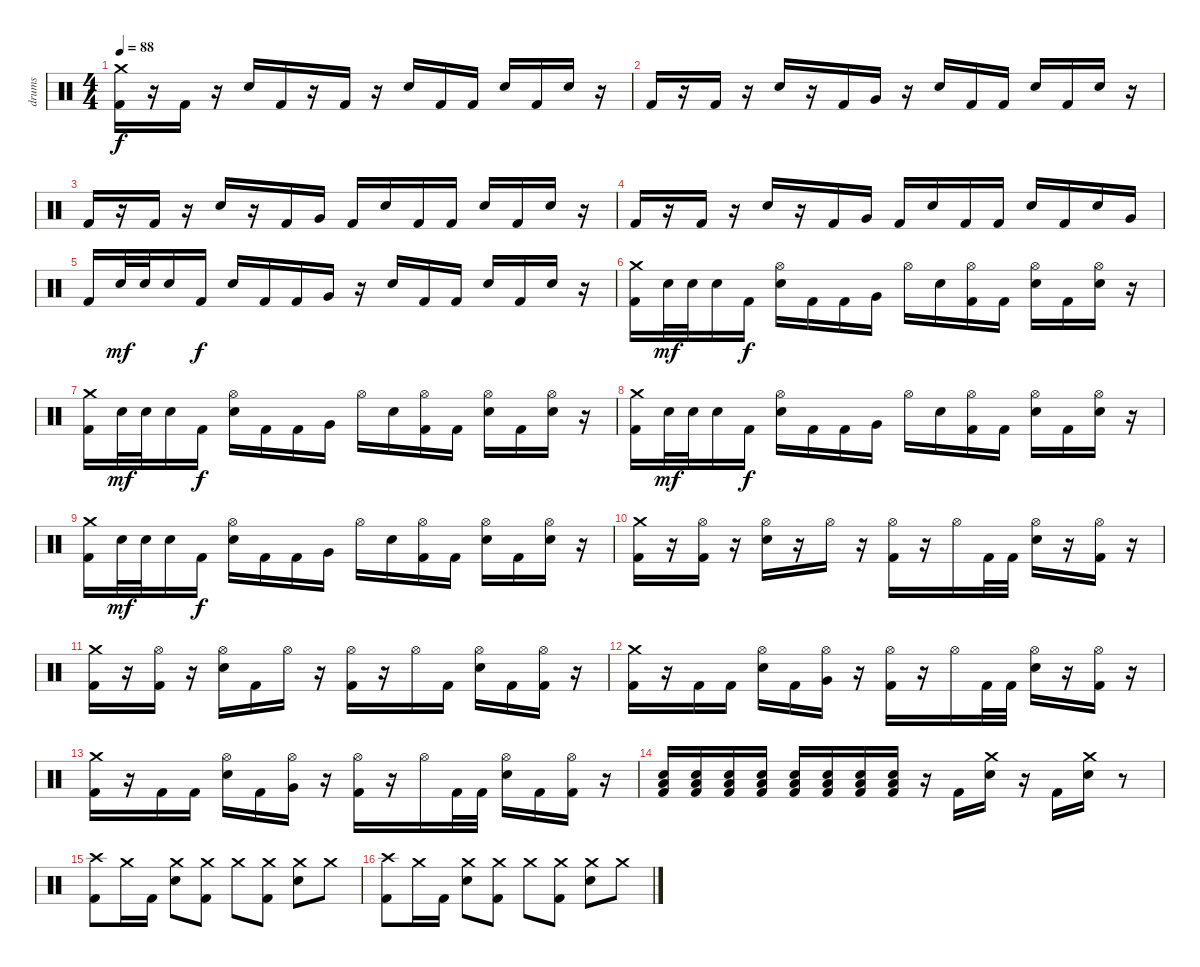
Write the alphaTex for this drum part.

\track ("drums" "drums") {instrument percussion}
\staff {score}
\articulation defaults
\ts (4 4)
\tempo 88
\clef neutral
\ks c
("Crash medium (hit)" "Kick (hit) 2").16{dy f} r.16 "Kick (hit) 2".16 r.16 "Electric Snare (hit)".16 "Kick (hit) 2".16 r.16 "Kick (hit) 2".16 r.16 "Electric Snare (hit)".16 "Kick (hit) 2".16 "Kick (hit) 2".16 "Electric Snare (hit)".16 "Kick (hit) 2".16 "Electric Snare (hit)".16 r.16 |
"Kick (hit) 2".16 r.16 "Kick (hit) 2".16 r.16 "Electric Snare (hit)".16 r.16 "Kick (hit) 2".16 "Very Low Tom (hit)".16 r.16 "Electric Snare (hit)".16 "Kick (hit) 2".16 "Kick (hit) 2".16 "Electric Snare (hit)".16 "Kick (hit) 2".16 "Electric Snare (hit)".16 r.16 |
"Kick (hit) 2".16 r.16 "Kick (hit) 2".16 r.16 "Electric Snare (hit)".16 r.16 "Kick (hit) 2".16 "Very Low Tom (hit)".16 "Kick (hit) 2".16 "Electric Snare (hit)".16 "Kick (hit) 2".16 "Kick (hit) 2".16 "Electric Snare (hit)".16 "Kick (hit) 2".16 "Electric Snare (hit)".16 r.16 |
"Kick (hit) 2".16 r.16 "Kick (hit) 2".16 r.16 "Electric Snare (hit)".16 r.16 "Kick (hit) 2".16 "Very Low Tom (hit)".16 "Kick (hit) 2".16 "Electric Snare (hit)".16 "Kick (hit) 2".16 "Kick (hit) 2".16 "Electric Snare (hit)".16 "Kick (hit) 2".16 "Electric Snare (hit)".16 "Very Low Tom (hit)".16 |
"Kick (hit) 2".16 "Electric Snare (hit)".32{dy mf} "Electric Snare (hit)".32 "Electric Snare (hit)".16 "Kick (hit) 2".16{dy f} "Electric Snare (hit)".16 "Kick (hit) 2".16 "Kick (hit) 2".16 "Very Low Tom (hit)".16 r.16 "Electric Snare (hit)".16 "Kick (hit) 2".16 "Kick (hit) 2".16 "Electric Snare (hit)".16 "Kick (hit) 2".16 "Electric Snare (hit)".16 r.16 |
("Crash medium (hit)" "Kick (hit) 2").16 "Electric Snare (hit)".32{dy mf} "Electric Snare (hit)".32 "Electric Snare (hit)".16 "Kick (hit) 2".16{dy f} ("Hi-Hat (open)" "Electric Snare (hit)").16 "Kick (hit) 2".16 "Kick (hit) 2".16 "Very Low Tom (hit)".16 "Hi-Hat (open)".16 "Electric Snare (hit)".16 ("Hi-Hat (open)" "Kick (hit) 2").16 "Kick (hit) 2".16 ("Hi-Hat (open)" "Electric Snare (hit)").16 "Kick (hit) 2".16 ("Hi-Hat (open)" "Electric Snare (hit)").16 r.16 |
("Crash medium (hit)" "Kick (hit) 2").16 "Electric Snare (hit)".32{dy mf} "Electric Snare (hit)".32 "Electric Snare (hit)".16 "Kick (hit) 2".16{dy f} ("Hi-Hat (open)" "Electric Snare (hit)").16 "Kick (hit) 2".16 "Kick (hit) 2".16 "Very Low Tom (hit)".16 "Hi-Hat (open)".16 "Electric Snare (hit)".16 ("Hi-Hat (open)" "Kick (hit) 2").16 "Kick (hit) 2".16 ("Hi-Hat (open)" "Electric Snare (hit)").16 "Kick (hit) 2".16 ("Hi-Hat (open)" "Electric Snare (hit)").16 r.16 |
("Crash medium (hit)" "Kick (hit) 2").16 "Electric Snare (hit)".32{dy mf} "Electric Snare (hit)".32 "Electric Snare (hit)".16 "Kick (hit) 2".16{dy f} ("Hi-Hat (open)" "Electric Snare (hit)").16 "Kick (hit) 2".16 "Kick (hit) 2".16 "Very Low Tom (hit)".16 "Hi-Hat (open)".16 "Electric Snare (hit)".16 ("Hi-Hat (open)" "Kick (hit) 2").16 "Kick (hit) 2".16 ("Hi-Hat (open)" "Electric Snare (hit)").16 "Kick (hit) 2".16 ("Hi-Hat (open)" "Electric Snare (hit)").16 r.16 |
("Crash medium (hit)" "Kick (hit) 2").16 "Electric Snare (hit)".32{dy mf} "Electric Snare (hit)".32 "Electric Snare (hit)".16 "Kick (hit) 2".16{dy f} ("Hi-Hat (open)" "Electric Snare (hit)").16 "Kick (hit) 2".16 "Kick (hit) 2".16 "Very Low Tom (hit)".16 "Hi-Hat (open)".16 "Electric Snare (hit)".16 ("Hi-Hat (open)" "Kick (hit) 2").16 "Kick (hit) 2".16 ("Hi-Hat (open)" "Electric Snare (hit)").16 "Kick (hit) 2".16 ("Hi-Hat (open)" "Electric Snare (hit)").16 r.16 |
("Crash medium (hit)" "Kick (hit) 2").16 r.16 ("Hi-Hat (open)" "Kick (hit) 2").16 r.16 ("Hi-Hat (open)" "Electric Snare (hit)").16 r.16 "Hi-Hat (open)".16 r.16 ("Hi-Hat (open)" "Kick (hit) 2").16 r.16 "Hi-Hat (open)".16 "Kick (hit) 2".32 "Kick (hit) 2".32 ("Hi-Hat (open)" "Electric Snare (hit)").16 r.16 ("Hi-Hat (open)" "Kick (hit) 2").16 r.16 |
("Crash medium (hit)" "Kick (hit) 2").16 r.16 ("Hi-Hat (open)" "Kick (hit) 2").16 r.16 ("Hi-Hat (open)" "Electric Snare (hit)").16 "Kick (hit) 2".16 "Hi-Hat (open)".16 r.16 ("Hi-Hat (open)" "Kick (hit) 2").16 r.16 "Hi-Hat (open)".16 "Kick (hit) 2".16 ("Hi-Hat (open)" "Electric Snare (hit)").16 "Kick (hit) 2".16 ("Hi-Hat (open)" "Kick (hit) 2").16 r.16 |
("Crash medium (hit)" "Kick (hit) 2").16 r.16 "Kick (hit) 2".16 "Kick (hit) 2".16 ("Hi-Hat (open)" "Electric Snare (hit)").16 "Kick (hit) 2".16 ("Hi-Hat (open)" "Very Low Tom (hit)").16 r.16 ("Hi-Hat (open)" "Kick (hit) 2").16 r.16 "Hi-Hat (open)".16 "Kick (hit) 2".32 "Kick (hit) 2".32 ("Hi-Hat (open)" "Electric Snare (hit)").16 r.16 ("Hi-Hat (open)" "Kick (hit) 2").16 r.16 |
("Crash medium (hit)" "Kick (hit) 2").16 r.16 "Kick (hit) 2".16 "Kick (hit) 2".16 ("Hi-Hat (open)" "Electric Snare (hit)").16 "Kick (hit) 2".16 ("Hi-Hat (open)" "Very Low Tom (hit)").16 r.16 ("Hi-Hat (open)" "Kick (hit) 2").16 r.16 "Hi-Hat (open)".16 "Kick (hit) 2".32 "Kick (hit) 2".32 ("Hi-Hat (open)" "Electric Snare (hit)").16 "Kick (hit) 2".16 ("Hi-Hat (open)" "Kick (hit) 2").16 r.16 |
("Electric Snare (hit)" "Low Tom (hit)" "Kick (hit) 2").16 ("Electric Snare (hit)" "Low Tom (hit)" "Kick (hit) 2").16 ("Electric Snare (hit)" "Low Tom (hit)" "Kick (hit) 2").16 ("Electric Snare (hit)" "Low Tom (hit)" "Kick (hit) 2").16 ("Electric Snare (hit)" "Low Tom (hit)" "Kick (hit) 2").16 ("Electric Snare (hit)" "Low Tom (hit)" "Kick (hit) 2").16 ("Electric Snare (hit)" "Low Tom (hit)" "Kick (hit) 2").16 ("Electric Snare (hit)" "Low Tom (hit)" "Kick (hit) 2").16 r.16 "Kick (hit) 2".16 ("Crash medium (hit)" "Electric Snare (hit)").16 r.16 "Kick (hit) 2".16 ("Crash medium (hit)" "Electric Snare (hit)").16 r.8 |
("Crash high (hit)" "Kick (hit) 2").8 "Crash medium (hit)".16 "Kick (hit) 2".16 ("Crash medium (hit)" "Electric Snare (hit)").8 ("Crash medium (hit)" "Kick (hit) 2").8 "Crash medium (hit)".8 ("Crash medium (hit)" "Kick (hit) 2").8 ("Crash medium (hit)" "Electric Snare (hit)").8 "Crash medium (hit)".8 |
("Crash high (hit)" "Kick (hit) 2").8 "Crash medium (hit)".16 "Kick (hit) 2".16 ("Crash medium (hit)" "Electric Snare (hit)").8 ("Crash medium (hit)" "Kick (hit) 2").8 "Crash medium (hit)".8 ("Crash medium (hit)" "Kick (hit) 2").8 ("Crash medium (hit)" "Electric Snare (hit)").8 "Crash medium (hit)".8
